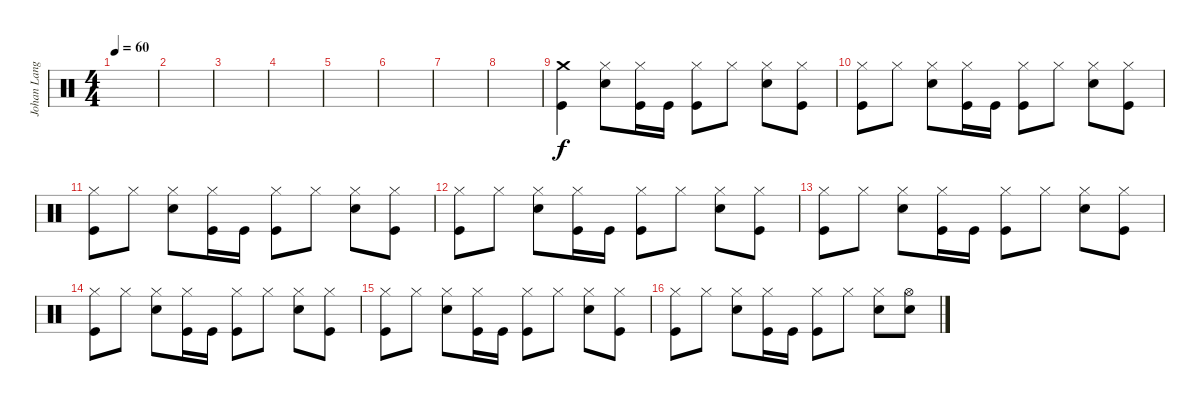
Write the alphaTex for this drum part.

\track ("Johan Langell" "Johan Lang") {instrument percussion}
\staff {score}
\articulation defaults
\ts (4 4)
\tempo 60
\clef neutral
\ks c
|
|
|
|
|
|
|
|
("Crash medium (hit)" "Kick (hit)").4 ("Hi-Hat (closed)" "Snare (hit) 2").8 ("Hi-Hat (closed)" "Kick (hit)").16 "Kick (hit)".16 ("Hi-Hat (closed)" "Kick (hit)").8 "Hi-Hat (closed)".8 ("Hi-Hat (closed)" "Snare (hit) 2").8 ("Hi-Hat (closed)" "Kick (hit)").8 |
("Hi-Hat (closed)" "Kick (hit)").8 "Hi-Hat (closed)".8 ("Hi-Hat (closed)" "Snare (hit) 2").8 ("Hi-Hat (closed)" "Kick (hit)").16 "Kick (hit)".16 ("Hi-Hat (closed)" "Kick (hit)").8 "Hi-Hat (closed)".8 ("Hi-Hat (closed)" "Snare (hit) 2").8 ("Hi-Hat (closed)" "Kick (hit)").8 |
("Hi-Hat (closed)" "Kick (hit)").8 "Hi-Hat (closed)".8 ("Hi-Hat (closed)" "Snare (hit) 2").8 ("Hi-Hat (closed)" "Kick (hit)").16 "Kick (hit)".16 ("Hi-Hat (closed)" "Kick (hit)").8 "Hi-Hat (closed)".8 ("Hi-Hat (closed)" "Snare (hit) 2").8 ("Hi-Hat (closed)" "Kick (hit)").8 |
("Hi-Hat (closed)" "Kick (hit)").8 "Hi-Hat (closed)".8 ("Hi-Hat (closed)" "Snare (hit) 2").8 ("Hi-Hat (closed)" "Kick (hit)").16 "Kick (hit)".16 ("Hi-Hat (closed)" "Kick (hit)").8 "Hi-Hat (closed)".8 ("Hi-Hat (closed)" "Snare (hit) 2").8 ("Hi-Hat (closed)" "Kick (hit)").8 |
("Hi-Hat (closed)" "Kick (hit)").8 "Hi-Hat (closed)".8 ("Hi-Hat (closed)" "Snare (hit) 2").8 ("Hi-Hat (closed)" "Kick (hit)").16 "Kick (hit)".16 ("Hi-Hat (closed)" "Kick (hit)").8 "Hi-Hat (closed)".8 ("Hi-Hat (closed)" "Snare (hit) 2").8 ("Hi-Hat (closed)" "Kick (hit)").8 |
("Hi-Hat (closed)" "Kick (hit)").8 "Hi-Hat (closed)".8 ("Hi-Hat (closed)" "Snare (hit) 2").8 ("Hi-Hat (closed)" "Kick (hit)").16 "Kick (hit)".16 ("Hi-Hat (closed)" "Kick (hit)").8 "Hi-Hat (closed)".8 ("Hi-Hat (closed)" "Snare (hit) 2").8 ("Hi-Hat (closed)" "Kick (hit)").8 |
("Hi-Hat (closed)" "Kick (hit)").8 "Hi-Hat (closed)".8 ("Hi-Hat (closed)" "Snare (hit) 2").8 ("Hi-Hat (closed)" "Kick (hit)").16 "Kick (hit)".16 ("Hi-Hat (closed)" "Kick (hit)").8 "Hi-Hat (closed)".8 ("Hi-Hat (closed)" "Snare (hit) 2").8 ("Hi-Hat (closed)" "Kick (hit)").8 |
("Hi-Hat (closed)" "Kick (hit)").8 "Hi-Hat (closed)".8 ("Hi-Hat (closed)" "Snare (hit) 2").8 ("Hi-Hat (closed)" "Kick (hit)").16 "Kick (hit)".16 ("Hi-Hat (closed)" "Kick (hit)").8 "Hi-Hat (closed)".8 ("Hi-Hat (closed)" "Snare (hit) 2").8 ("Hi-Hat (open)" "Snare (hit) 2").8
